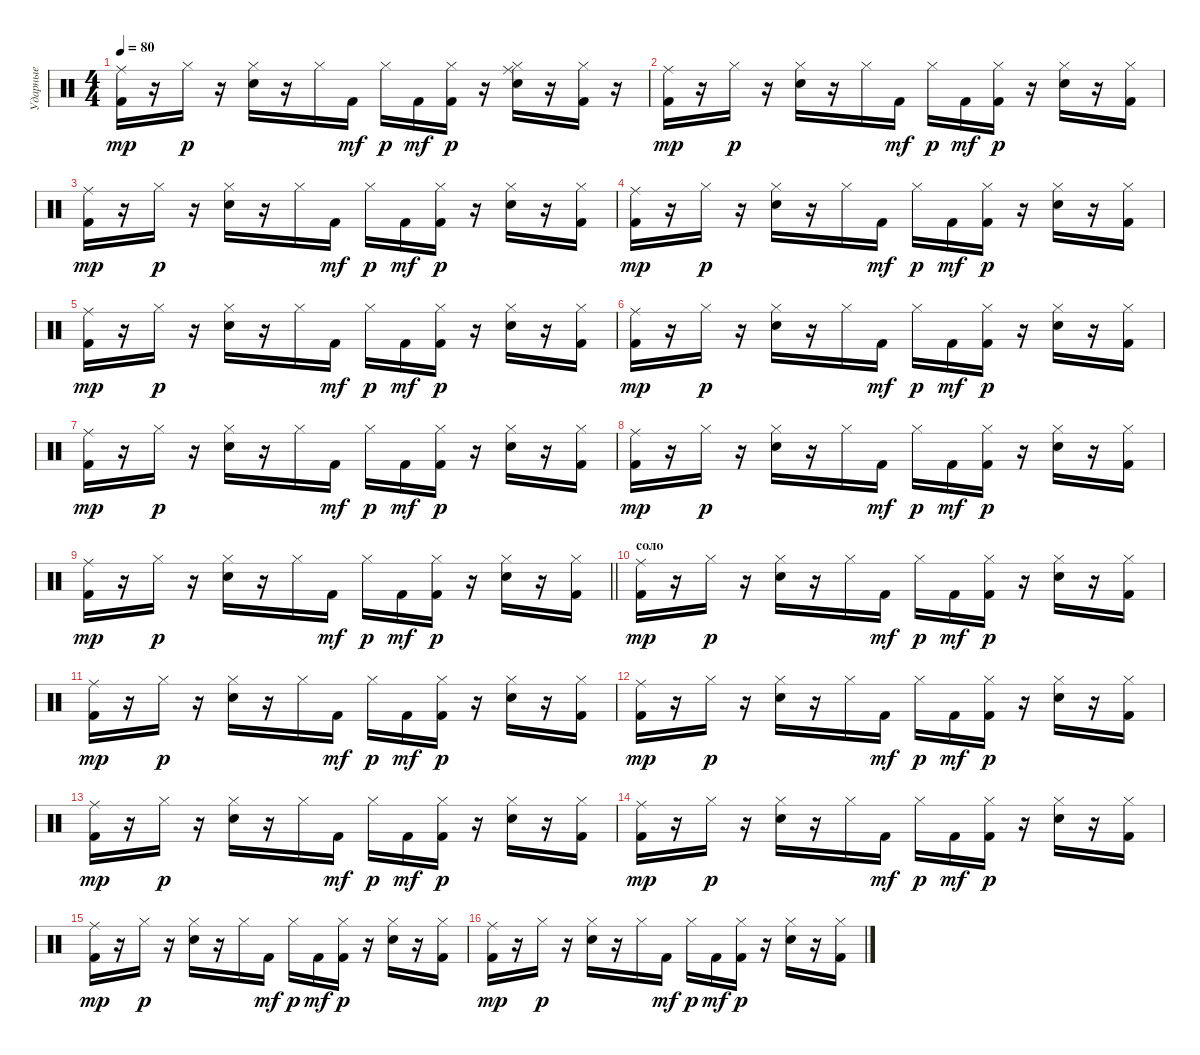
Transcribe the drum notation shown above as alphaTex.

\track ("Ударные" "Ударные") {instrument percussion}
\staff {score}
\articulation defaults
\ts (4 4)
\tempo 80
\clef neutral
\ks c
("Kick (hit) 2" "Ride (middle)").16{dy mp} r.16 "Hi-Hat (closed)".16{dy p} r.16 ("Electric Snare (hit)" "Hi-Hat (closed)").16 r.16 "Hi-Hat (closed)".16 "Kick (hit) 2".16{dy mf} "Hi-Hat (closed)".16{dy p} "Kick (hit) 2".16{dy mf} ("Kick (hit) 2" "Hi-Hat (closed)").16{dy p} r.16 ("Electric Snare (hit)" "Ride (middle)" "Hi-Hat (closed)").16 r.16 ("Kick (hit) 2" "Hi-Hat (closed)").16 r.16 |
("Kick (hit) 2" "Ride (middle)").16{dy mp} r.16 "Hi-Hat (closed)".16{dy p} r.16 ("Electric Snare (hit)" "Hi-Hat (closed)").16 r.16 "Hi-Hat (closed)".16 "Kick (hit) 2".16{dy mf} "Hi-Hat (closed)".16{dy p} "Kick (hit) 2".16{dy mf} ("Kick (hit) 2" "Hi-Hat (closed)").16{dy p} r.16 ("Electric Snare (hit)" "Hi-Hat (closed)").16 r.16 ("Kick (hit) 2" "Hi-Hat (closed)").16 |
("Kick (hit) 2" "Ride (middle)").16{dy mp} r.16 "Hi-Hat (closed)".16{dy p} r.16 ("Electric Snare (hit)" "Hi-Hat (closed)").16 r.16 "Hi-Hat (closed)".16 "Kick (hit) 2".16{dy mf} "Hi-Hat (closed)".16{dy p} "Kick (hit) 2".16{dy mf} ("Kick (hit) 2" "Hi-Hat (closed)").16{dy p} r.16 ("Electric Snare (hit)" "Hi-Hat (closed)").16 r.16 ("Kick (hit) 2" "Hi-Hat (closed)").16 |
("Kick (hit) 2" "Ride (middle)").16{dy mp} r.16 "Hi-Hat (closed)".16{dy p} r.16 ("Electric Snare (hit)" "Hi-Hat (closed)").16 r.16 "Hi-Hat (closed)".16 "Kick (hit) 2".16{dy mf} "Hi-Hat (closed)".16{dy p} "Kick (hit) 2".16{dy mf} ("Kick (hit) 2" "Hi-Hat (closed)").16{dy p} r.16 ("Electric Snare (hit)" "Hi-Hat (closed)").16 r.16 ("Kick (hit) 2" "Hi-Hat (closed)").16 |
("Kick (hit) 2" "Ride (middle)").16{dy mp} r.16 "Hi-Hat (closed)".16{dy p} r.16 ("Electric Snare (hit)" "Hi-Hat (closed)").16 r.16 "Hi-Hat (closed)".16 "Kick (hit) 2".16{dy mf} "Hi-Hat (closed)".16{dy p} "Kick (hit) 2".16{dy mf} ("Kick (hit) 2" "Hi-Hat (closed)").16{dy p} r.16 ("Electric Snare (hit)" "Hi-Hat (closed)").16 r.16 ("Kick (hit) 2" "Hi-Hat (closed)").16 |
("Kick (hit) 2" "Ride (middle)").16{dy mp} r.16 "Hi-Hat (closed)".16{dy p} r.16 ("Electric Snare (hit)" "Hi-Hat (closed)").16 r.16 "Hi-Hat (closed)".16 "Kick (hit) 2".16{dy mf} "Hi-Hat (closed)".16{dy p} "Kick (hit) 2".16{dy mf} ("Kick (hit) 2" "Hi-Hat (closed)").16{dy p} r.16 ("Electric Snare (hit)" "Hi-Hat (closed)").16 r.16 ("Kick (hit) 2" "Hi-Hat (closed)").16 |
("Kick (hit) 2" "Ride (middle)").16{dy mp} r.16 "Hi-Hat (closed)".16{dy p} r.16 ("Electric Snare (hit)" "Hi-Hat (closed)").16 r.16 "Hi-Hat (closed)".16 "Kick (hit) 2".16{dy mf} "Hi-Hat (closed)".16{dy p} "Kick (hit) 2".16{dy mf} ("Kick (hit) 2" "Hi-Hat (closed)").16{dy p} r.16 ("Electric Snare (hit)" "Hi-Hat (closed)").16 r.16 ("Kick (hit) 2" "Hi-Hat (closed)").16 |
("Kick (hit) 2" "Ride (middle)").16{dy mp} r.16 "Hi-Hat (closed)".16{dy p} r.16 ("Electric Snare (hit)" "Hi-Hat (closed)").16 r.16 "Hi-Hat (closed)".16 "Kick (hit) 2".16{dy mf} "Hi-Hat (closed)".16{dy p} "Kick (hit) 2".16{dy mf} ("Kick (hit) 2" "Hi-Hat (closed)").16{dy p} r.16 ("Electric Snare (hit)" "Hi-Hat (closed)").16 r.16 ("Kick (hit) 2" "Hi-Hat (closed)").16 |
\barLineRight lightlight
("Kick (hit) 2" "Ride (middle)").16{dy mp} r.16 "Hi-Hat (closed)".16{dy p} r.16 ("Electric Snare (hit)" "Hi-Hat (closed)").16 r.16 "Hi-Hat (closed)".16 "Kick (hit) 2".16{dy mf} "Hi-Hat (closed)".16{dy p} "Kick (hit) 2".16{dy mf} ("Kick (hit) 2" "Hi-Hat (closed)").16{dy p} r.16 ("Electric Snare (hit)" "Hi-Hat (closed)").16 r.16 ("Kick (hit) 2" "Hi-Hat (closed)").16 |
\section ("" "соло")
("Kick (hit) 2" "Ride (middle)").16{dy mp} r.16 "Hi-Hat (closed)".16{dy p} r.16 ("Electric Snare (hit)" "Hi-Hat (closed)").16 r.16 "Hi-Hat (closed)".16 "Kick (hit) 2".16{dy mf} "Hi-Hat (closed)".16{dy p} "Kick (hit) 2".16{dy mf} ("Kick (hit) 2" "Hi-Hat (closed)").16{dy p} r.16 ("Electric Snare (hit)" "Hi-Hat (closed)").16 r.16 ("Kick (hit) 2" "Hi-Hat (closed)").16 |
("Kick (hit) 2" "Ride (middle)").16{dy mp} r.16 "Hi-Hat (closed)".16{dy p} r.16 ("Electric Snare (hit)" "Hi-Hat (closed)").16 r.16 "Hi-Hat (closed)".16 "Kick (hit) 2".16{dy mf} "Hi-Hat (closed)".16{dy p} "Kick (hit) 2".16{dy mf} ("Kick (hit) 2" "Hi-Hat (closed)").16{dy p} r.16 ("Electric Snare (hit)" "Hi-Hat (closed)").16 r.16 ("Kick (hit) 2" "Hi-Hat (closed)").16 |
("Kick (hit) 2" "Ride (middle)").16{dy mp} r.16 "Hi-Hat (closed)".16{dy p} r.16 ("Electric Snare (hit)" "Hi-Hat (closed)").16 r.16 "Hi-Hat (closed)".16 "Kick (hit) 2".16{dy mf} "Hi-Hat (closed)".16{dy p} "Kick (hit) 2".16{dy mf} ("Kick (hit) 2" "Hi-Hat (closed)").16{dy p} r.16 ("Electric Snare (hit)" "Hi-Hat (closed)").16 r.16 ("Kick (hit) 2" "Hi-Hat (closed)").16 |
("Kick (hit) 2" "Ride (middle)").16{dy mp} r.16 "Hi-Hat (closed)".16{dy p} r.16 ("Electric Snare (hit)" "Hi-Hat (closed)").16 r.16 "Hi-Hat (closed)".16 "Kick (hit) 2".16{dy mf} "Hi-Hat (closed)".16{dy p} "Kick (hit) 2".16{dy mf} ("Kick (hit) 2" "Hi-Hat (closed)").16{dy p} r.16 ("Electric Snare (hit)" "Hi-Hat (closed)").16 r.16 ("Kick (hit) 2" "Hi-Hat (closed)").16 |
("Kick (hit) 2" "Ride (middle)").16{dy mp} r.16 "Hi-Hat (closed)".16{dy p} r.16 ("Electric Snare (hit)" "Hi-Hat (closed)").16 r.16 "Hi-Hat (closed)".16 "Kick (hit) 2".16{dy mf} "Hi-Hat (closed)".16{dy p} "Kick (hit) 2".16{dy mf} ("Kick (hit) 2" "Hi-Hat (closed)").16{dy p} r.16 ("Electric Snare (hit)" "Hi-Hat (closed)").16 r.16 ("Kick (hit) 2" "Hi-Hat (closed)").16 |
("Kick (hit) 2" "Ride (middle)").16{dy mp} r.16 "Hi-Hat (closed)".16{dy p} r.16 ("Electric Snare (hit)" "Hi-Hat (closed)").16 r.16 "Hi-Hat (closed)".16 "Kick (hit) 2".16{dy mf} "Hi-Hat (closed)".16{dy p} "Kick (hit) 2".16{dy mf} ("Kick (hit) 2" "Hi-Hat (closed)").16{dy p} r.16 ("Electric Snare (hit)" "Hi-Hat (closed)").16 r.16 ("Kick (hit) 2" "Hi-Hat (closed)").16 |
("Kick (hit) 2" "Ride (middle)").16{dy mp} r.16 "Hi-Hat (closed)".16{dy p} r.16 ("Electric Snare (hit)" "Hi-Hat (closed)").16 r.16 "Hi-Hat (closed)".16 "Kick (hit) 2".16{dy mf} "Hi-Hat (closed)".16{dy p} "Kick (hit) 2".16{dy mf} ("Kick (hit) 2" "Hi-Hat (closed)").16{dy p} r.16 ("Electric Snare (hit)" "Hi-Hat (closed)").16 r.16 ("Kick (hit) 2" "Hi-Hat (closed)").16
